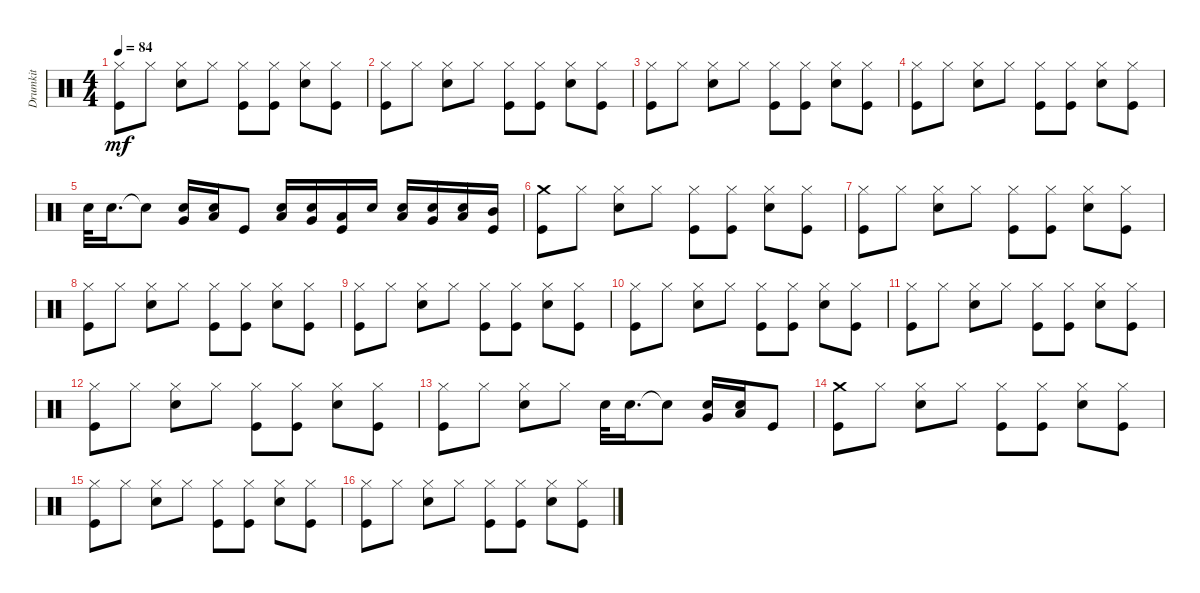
\track ("Drumkit" "Drumkit") {instrument percussion}
\staff {score}
\articulation defaults
\ts (4 4)
\tempo 84
\clef neutral
\ks c
("Kick (hit)" "Hi-Hat (closed)").8{dy mf} "Hi-Hat (closed)".8 ("Snare (hit) 2" "Hi-Hat (closed)").8 "Hi-Hat (closed)".8 ("Kick (hit)" "Hi-Hat (closed)").8 ("Kick (hit)" "Hi-Hat (closed)").8 ("Snare (hit) 2" "Hi-Hat (closed)").8 ("Kick (hit)" "Hi-Hat (closed)").8 |
("Kick (hit)" "Hi-Hat (closed)").8 "Hi-Hat (closed)".8 ("Snare (hit) 2" "Hi-Hat (closed)").8 "Hi-Hat (closed)".8 ("Kick (hit)" "Hi-Hat (closed)").8 ("Kick (hit)" "Hi-Hat (closed)").8 ("Snare (hit) 2" "Hi-Hat (closed)").8 ("Kick (hit)" "Hi-Hat (closed)").8 |
("Kick (hit)" "Hi-Hat (closed)").8 "Hi-Hat (closed)".8 ("Snare (hit) 2" "Hi-Hat (closed)").8 "Hi-Hat (closed)".8 ("Kick (hit)" "Hi-Hat (closed)").8 ("Kick (hit)" "Hi-Hat (closed)").8 ("Snare (hit) 2" "Hi-Hat (closed)").8 ("Kick (hit)" "Hi-Hat (closed)").8 |
("Kick (hit)" "Hi-Hat (closed)").8 "Hi-Hat (closed)".8 ("Snare (hit) 2" "Hi-Hat (closed)").8 "Hi-Hat (closed)".8 ("Kick (hit)" "Hi-Hat (closed)").8 ("Kick (hit)" "Hi-Hat (closed)").8 ("Snare (hit) 2" "Hi-Hat (closed)").8 ("Kick (hit)" "Hi-Hat (closed)").8 |
"Snare (hit) 2".32 "Snare (hit) 2".16{d} "Snare (hit) 2"{t}.8 ("Snare (hit) 2" "Very Low Tom (hit)").16 ("Snare (hit) 2" "Low Tom (hit)").16 "Kick (hit)".8 ("Snare (hit) 2" "Low Floor Tom (hit)").16 ("Snare (hit) 2" "Very Low Tom (hit)").16 ("Kick (hit)" "Low Tom (hit)").16 "Snare (hit) 2".16 ("Snare (hit) 2" "Low Floor Tom (hit)").16 ("Snare (hit) 2" "Very Low Tom (hit)").16 ("Snare (hit) 2" "Low Tom (hit)").16 ("Kick (hit)" "Mid Tom (hit)").16 |
("Kick (hit)" "Crash medium (hit)").8 "Hi-Hat (closed)".8 ("Snare (hit) 2" "Hi-Hat (closed)").8 "Hi-Hat (closed)".8 ("Kick (hit)" "Hi-Hat (closed)").8 ("Kick (hit)" "Hi-Hat (closed)").8 ("Snare (hit) 2" "Hi-Hat (closed)").8 ("Kick (hit)" "Hi-Hat (closed)").8 |
("Kick (hit)" "Hi-Hat (closed)").8 "Hi-Hat (closed)".8 ("Snare (hit) 2" "Hi-Hat (closed)").8 "Hi-Hat (closed)".8 ("Kick (hit)" "Hi-Hat (closed)").8 ("Kick (hit)" "Hi-Hat (closed)").8 ("Snare (hit) 2" "Hi-Hat (closed)").8 ("Kick (hit)" "Hi-Hat (closed)").8 |
("Kick (hit)" "Hi-Hat (closed)").8 "Hi-Hat (closed)".8 ("Snare (hit) 2" "Hi-Hat (closed)").8 "Hi-Hat (closed)".8 ("Kick (hit)" "Hi-Hat (closed)").8 ("Kick (hit)" "Hi-Hat (closed)").8 ("Snare (hit) 2" "Hi-Hat (closed)").8 ("Kick (hit)" "Hi-Hat (closed)").8 |
("Kick (hit)" "Hi-Hat (closed)").8 "Hi-Hat (closed)".8 ("Snare (hit) 2" "Hi-Hat (closed)").8 "Hi-Hat (closed)".8 ("Kick (hit)" "Hi-Hat (closed)").8 ("Kick (hit)" "Hi-Hat (closed)").8 ("Snare (hit) 2" "Hi-Hat (closed)").8 ("Kick (hit)" "Hi-Hat (closed)").8 |
("Kick (hit)" "Hi-Hat (closed)").8 "Hi-Hat (closed)".8 ("Snare (hit) 2" "Hi-Hat (closed)").8 "Hi-Hat (closed)".8 ("Kick (hit)" "Hi-Hat (closed)").8 ("Kick (hit)" "Hi-Hat (closed)").8 ("Snare (hit) 2" "Hi-Hat (closed)").8 ("Kick (hit)" "Hi-Hat (closed)").8 |
("Kick (hit)" "Hi-Hat (closed)").8 "Hi-Hat (closed)".8 ("Snare (hit) 2" "Hi-Hat (closed)").8 "Hi-Hat (closed)".8 ("Kick (hit)" "Hi-Hat (closed)").8 ("Kick (hit)" "Hi-Hat (closed)").8 ("Snare (hit) 2" "Hi-Hat (closed)").8 ("Kick (hit)" "Hi-Hat (closed)").8 |
("Kick (hit)" "Hi-Hat (closed)").8 "Hi-Hat (closed)".8 ("Snare (hit) 2" "Hi-Hat (closed)").8 "Hi-Hat (closed)".8 ("Kick (hit)" "Hi-Hat (closed)").8 ("Kick (hit)" "Hi-Hat (closed)").8 ("Snare (hit) 2" "Hi-Hat (closed)").8 ("Kick (hit)" "Hi-Hat (closed)").8 |
("Kick (hit)" "Hi-Hat (closed)").8 "Hi-Hat (closed)".8 ("Snare (hit) 2" "Hi-Hat (closed)").8 "Hi-Hat (closed)".8 "Snare (hit) 2".32 "Snare (hit) 2".16{d} "Snare (hit) 2"{t}.8 ("Snare (hit) 2" "Very Low Tom (hit)").16 ("Snare (hit) 2" "Low Tom (hit)").16 "Kick (hit)".8 |
("Kick (hit)" "Crash medium (hit)").8 "Hi-Hat (closed)".8 ("Snare (hit) 2" "Hi-Hat (closed)").8 "Hi-Hat (closed)".8 ("Kick (hit)" "Hi-Hat (closed)").8 ("Kick (hit)" "Hi-Hat (closed)").8 ("Snare (hit) 2" "Hi-Hat (closed)").8 ("Kick (hit)" "Hi-Hat (closed)").8 |
("Kick (hit)" "Hi-Hat (closed)").8 "Hi-Hat (closed)".8 ("Snare (hit) 2" "Hi-Hat (closed)").8 "Hi-Hat (closed)".8 ("Kick (hit)" "Hi-Hat (closed)").8 ("Kick (hit)" "Hi-Hat (closed)").8 ("Snare (hit) 2" "Hi-Hat (closed)").8 ("Kick (hit)" "Hi-Hat (closed)").8 |
("Kick (hit)" "Hi-Hat (closed)").8 "Hi-Hat (closed)".8 ("Snare (hit) 2" "Hi-Hat (closed)").8 "Hi-Hat (closed)".8 ("Kick (hit)" "Hi-Hat (closed)").8 ("Kick (hit)" "Hi-Hat (closed)").8 ("Snare (hit) 2" "Hi-Hat (closed)").8 ("Kick (hit)" "Hi-Hat (closed)").8
